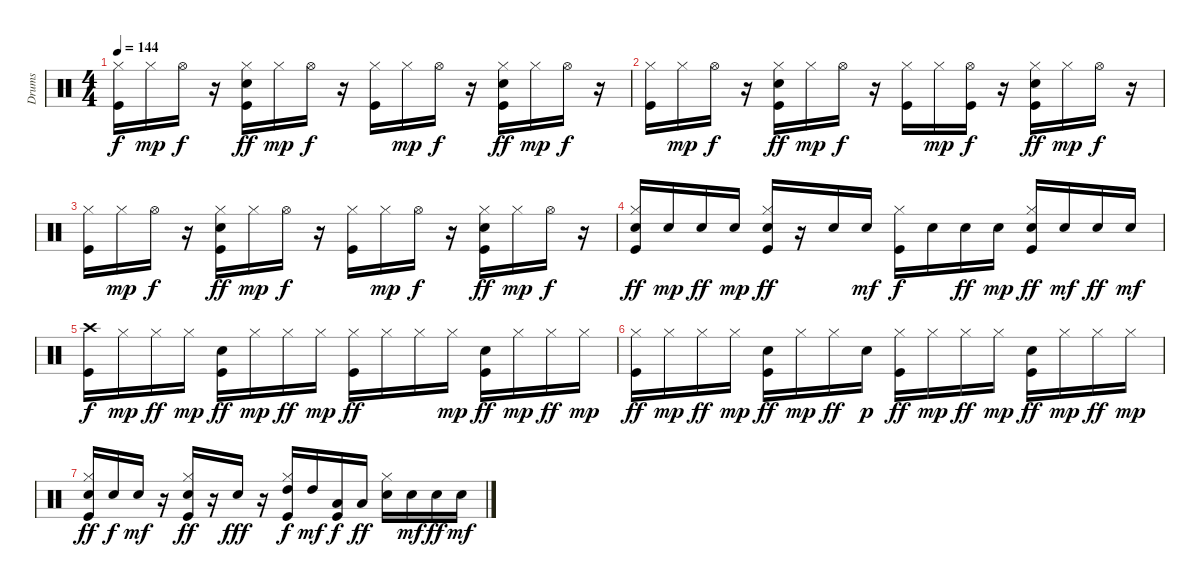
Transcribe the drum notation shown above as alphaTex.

\track ("Drums" "Drums") {instrument percussion}
\staff {score}
\articulation defaults
\ts (4 4)
\tempo 144
\clef neutral
\ks c
("Kick (hit)" "Hi-Hat (closed)").16{dy f} "Hi-Hat (closed)".16{dy mp} "Hi-Hat (open)".16{dy f} r.16 ("Kick (hit)" "Snare (hit) 2" "Hi-Hat (closed)").16{dy ff} "Hi-Hat (closed)".16{dy mp} "Hi-Hat (open)".16{dy f} r.16 ("Kick (hit)" "Hi-Hat (closed)").16 "Hi-Hat (closed)".16{dy mp} "Hi-Hat (open)".16{dy f} r.16 ("Kick (hit)" "Snare (hit) 2" "Hi-Hat (closed)").16{dy ff} "Hi-Hat (closed)".16{dy mp} "Hi-Hat (open)".16{dy f} r.16 |
("Kick (hit)" "Hi-Hat (closed)").16 "Hi-Hat (closed)".16{dy mp} "Hi-Hat (open)".16{dy f} r.16 ("Kick (hit)" "Snare (hit) 2" "Hi-Hat (closed)").16{dy ff} "Hi-Hat (closed)".16{dy mp} "Hi-Hat (open)".16{dy f} r.16 ("Kick (hit)" "Hi-Hat (closed)").16 "Hi-Hat (closed)".16{dy mp} ("Kick (hit)" "Hi-Hat (open)").16{dy f} r.16 ("Kick (hit)" "Snare (hit) 2" "Hi-Hat (closed)").16{dy ff} "Hi-Hat (closed)".16{dy mp} "Hi-Hat (open)".16{dy f} r.16 |
("Kick (hit)" "Hi-Hat (closed)").16 "Hi-Hat (closed)".16{dy mp} "Hi-Hat (open)".16{dy f} r.16 ("Kick (hit)" "Snare (hit) 2" "Hi-Hat (closed)").16{dy ff} "Hi-Hat (closed)".16{dy mp} "Hi-Hat (open)".16{dy f} r.16 ("Kick (hit)" "Hi-Hat (closed)").16 "Hi-Hat (closed)".16{dy mp} "Hi-Hat (open)".16{dy f} r.16 ("Kick (hit)" "Snare (hit) 2" "Hi-Hat (closed)").16{dy ff} "Hi-Hat (closed)".16{dy mp} "Hi-Hat (open)".16{dy f} r.16 |
("Kick (hit)" "Snare (hit) 2" "Hi-Hat (closed)").16{dy ff} "Snare (hit) 2".16{dy mp} "Snare (hit) 2".16{dy ff} "Snare (hit) 2".16{dy mp} ("Kick (hit)" "Snare (hit) 2" "Hi-Hat (closed)").16{dy ff} r.16 "Snare (hit) 2".16 "Snare (hit) 2".16{dy mf} ("Kick (hit)" "Hi-Hat (closed)").16{dy f} "Snare (hit) 2".16 "Snare (hit) 2".16{dy ff} "Snare (hit) 2".16{dy mp} ("Kick (hit)" "Snare (hit) 2" "Hi-Hat (closed)").16{dy ff} "Snare (hit) 2".16{dy mf} "Snare (hit) 2".16{dy ff} "Snare (hit) 2".16{dy mf} |
("Kick (hit)" "Crash high (hit)").16{dy f} "Hi-Hat (closed)".16{dy mp} "Hi-Hat (closed)".16{dy ff} "Hi-Hat (closed)".16{dy mp} ("Kick (hit)" "Snare (hit) 2").16{dy ff} "Hi-Hat (closed)".16{dy mp} "Hi-Hat (closed)".16{dy ff} "Hi-Hat (closed)".16{dy mp} ("Kick (hit)" "Hi-Hat (closed)").16{dy ff} "Hi-Hat (closed)".16 "Hi-Hat (closed)".16 "Hi-Hat (closed)".16{dy mp} ("Kick (hit)" "Snare (hit) 2").16{dy ff} "Hi-Hat (closed)".16{dy mp} "Hi-Hat (closed)".16{dy ff} "Hi-Hat (closed)".16{dy mp} |
("Kick (hit)" "Hi-Hat (closed)").16{dy ff} "Hi-Hat (closed)".16{dy mp} "Hi-Hat (closed)".16{dy ff} "Hi-Hat (closed)".16{dy mp} ("Kick (hit)" "Snare (hit) 2").16{dy ff} "Hi-Hat (closed)".16{dy mp} "Hi-Hat (closed)".16{dy ff} "Snare (hit) 2".16{dy p} ("Kick (hit)" "Hi-Hat (closed)").16{dy ff} "Hi-Hat (closed)".16{dy mp} "Hi-Hat (closed)".16{dy ff} "Hi-Hat (closed)".16{dy mp} ("Kick (hit)" "Snare (hit) 2").16{dy ff} "Hi-Hat (closed)".16{dy mp} "Hi-Hat (closed)".16{dy ff} "Hi-Hat (closed)".16{dy mp} |
("Kick (hit)" "Snare (hit) 2" "Hi-Hat (closed)").16{dy ff} "Snare (hit) 2".16{dy f} "Snare (hit) 2".16{dy mf} r.16 ("Kick (hit)" "Snare (hit) 2" "Hi-Hat (closed)").16{dy ff} r.16 "Snare (hit) 2".16{dy fff} r.16 ("Kick (hit)" "Hi-Hat (closed)" "High Tom (hit)").16{dy f} "High Tom (hit)".16{dy mf} ("Kick (hit)" "Low Tom (hit)").16{dy f} "Low Floor Tom (hit)".16{dy ff} ("Snare (hit) 2" "Hi-Hat (closed)").16 "Snare (hit) 2".16{dy mf} "Snare (hit) 2".16{dy ff} "Snare (hit) 2".16{dy mf}
